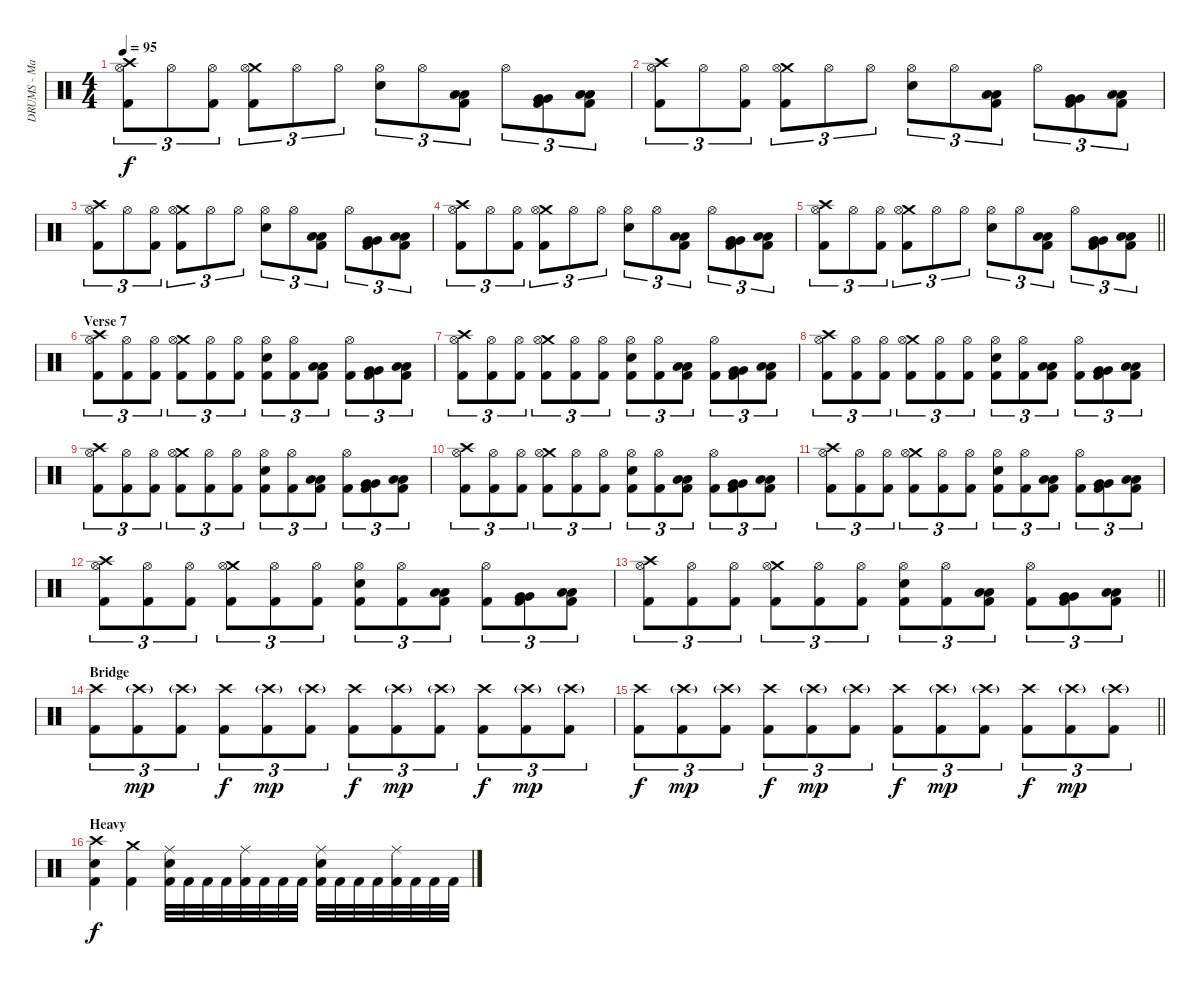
\track ("DRUMS - Mario Duplantier" "DRUMS - Ma") {instrument percussion}
\staff {score}
\articulation defaults
\ts (4 4)
\tempo 95
\clef neutral
\ks c
("Crash high (hit)" "Hi-Hat (open)" "Kick (hit) 2").8{tu (3 2) dy f} "Hi-Hat (open)".8{tu (3 2)} ("Hi-Hat (open)" "Kick (hit) 2").8{tu (3 2)} ("Crash medium (hit)" "Hi-Hat (open)" "Kick (hit) 2").8{tu (3 2)} "Hi-Hat (open)".8{tu (3 2)} "Hi-Hat (open)".8{tu (3 2)} ("Hi-Hat (open)" "Electric Snare (hit)").8{tu (3 2)} "Hi-Hat (open)".8{tu (3 2)} ("Low Floor Tom (hit)" "Low Floor Tom (hit)" "Kick (hit) 2").8{tu (3 2)} "Hi-Hat (open)".8{tu (3 2)} ("Very Low Tom (hit)" "Very Low Tom (hit)" "Kick (hit) 2").8{tu (3 2)} ("Low Floor Tom (hit)" "Low Floor Tom (hit)" "Kick (hit) 2").8{tu (3 2)} |
("Crash high (hit)" "Hi-Hat (open)" "Kick (hit) 2").8{tu (3 2)} "Hi-Hat (open)".8{tu (3 2)} ("Hi-Hat (open)" "Kick (hit) 2").8{tu (3 2)} ("Crash medium (hit)" "Hi-Hat (open)" "Kick (hit) 2").8{tu (3 2)} "Hi-Hat (open)".8{tu (3 2)} "Hi-Hat (open)".8{tu (3 2)} ("Hi-Hat (open)" "Electric Snare (hit)").8{tu (3 2)} "Hi-Hat (open)".8{tu (3 2)} ("Low Floor Tom (hit)" "Low Floor Tom (hit)" "Kick (hit) 2").8{tu (3 2)} "Hi-Hat (open)".8{tu (3 2)} ("Very Low Tom (hit)" "Very Low Tom (hit)" "Kick (hit) 2").8{tu (3 2)} ("Low Floor Tom (hit)" "Low Floor Tom (hit)" "Kick (hit) 2").8{tu (3 2)} |
("Crash high (hit)" "Hi-Hat (open)" "Kick (hit) 2").8{tu (3 2)} "Hi-Hat (open)".8{tu (3 2)} ("Hi-Hat (open)" "Kick (hit) 2").8{tu (3 2)} ("Crash medium (hit)" "Hi-Hat (open)" "Kick (hit) 2").8{tu (3 2)} "Hi-Hat (open)".8{tu (3 2)} "Hi-Hat (open)".8{tu (3 2)} ("Hi-Hat (open)" "Electric Snare (hit)").8{tu (3 2)} "Hi-Hat (open)".8{tu (3 2)} ("Low Floor Tom (hit)" "Low Floor Tom (hit)" "Kick (hit) 2").8{tu (3 2)} "Hi-Hat (open)".8{tu (3 2)} ("Very Low Tom (hit)" "Very Low Tom (hit)" "Kick (hit) 2").8{tu (3 2)} ("Low Floor Tom (hit)" "Low Floor Tom (hit)" "Kick (hit) 2").8{tu (3 2)} |
("Crash high (hit)" "Hi-Hat (open)" "Kick (hit) 2").8{tu (3 2)} "Hi-Hat (open)".8{tu (3 2)} ("Hi-Hat (open)" "Kick (hit) 2").8{tu (3 2)} ("Crash medium (hit)" "Hi-Hat (open)" "Kick (hit) 2").8{tu (3 2)} "Hi-Hat (open)".8{tu (3 2)} "Hi-Hat (open)".8{tu (3 2)} ("Hi-Hat (open)" "Electric Snare (hit)").8{tu (3 2)} "Hi-Hat (open)".8{tu (3 2)} ("Low Floor Tom (hit)" "Low Floor Tom (hit)" "Kick (hit) 2").8{tu (3 2)} "Hi-Hat (open)".8{tu (3 2)} ("Very Low Tom (hit)" "Very Low Tom (hit)" "Kick (hit) 2").8{tu (3 2)} ("Low Floor Tom (hit)" "Low Floor Tom (hit)" "Kick (hit) 2").8{tu (3 2)} |
\barLineRight lightlight
("Crash high (hit)" "Hi-Hat (open)" "Kick (hit) 2").8{tu (3 2)} "Hi-Hat (open)".8{tu (3 2)} ("Hi-Hat (open)" "Kick (hit) 2").8{tu (3 2)} ("Crash medium (hit)" "Hi-Hat (open)" "Kick (hit) 2").8{tu (3 2)} "Hi-Hat (open)".8{tu (3 2)} "Hi-Hat (open)".8{tu (3 2)} ("Hi-Hat (open)" "Electric Snare (hit)").8{tu (3 2)} "Hi-Hat (open)".8{tu (3 2)} ("Low Floor Tom (hit)" "Low Floor Tom (hit)" "Kick (hit) 2").8{tu (3 2)} "Hi-Hat (open)".8{tu (3 2)} ("Very Low Tom (hit)" "Very Low Tom (hit)" "Kick (hit) 2").8{tu (3 2)} ("Low Floor Tom (hit)" "Low Floor Tom (hit)" "Kick (hit) 2").8{tu (3 2)} |
\section ("" "Verse 7")
("Crash high (hit)" "Hi-Hat (open)" "Kick (hit) 2").8{tu (3 2)} ("Hi-Hat (open)" "Kick (hit) 2").8{tu (3 2)} ("Hi-Hat (open)" "Kick (hit) 2").8{tu (3 2)} ("Crash medium (hit)" "Hi-Hat (open)" "Kick (hit) 2").8{tu (3 2)} ("Hi-Hat (open)" "Kick (hit) 2").8{tu (3 2)} ("Hi-Hat (open)" "Kick (hit) 2").8{tu (3 2)} ("Hi-Hat (open)" "Electric Snare (hit)" "Kick (hit) 2").8{tu (3 2)} ("Hi-Hat (open)" "Kick (hit) 2").8{tu (3 2)} ("Low Floor Tom (hit)" "Low Floor Tom (hit)" "Kick (hit) 2").8{tu (3 2)} ("Hi-Hat (open)" "Kick (hit) 2").8{tu (3 2)} ("Very Low Tom (hit)" "Very Low Tom (hit)" "Kick (hit) 2").8{tu (3 2)} ("Low Floor Tom (hit)" "Low Floor Tom (hit)" "Kick (hit) 2").8{tu (3 2)} |
("Crash high (hit)" "Hi-Hat (open)" "Kick (hit) 2").8{tu (3 2)} ("Hi-Hat (open)" "Kick (hit) 2").8{tu (3 2)} ("Hi-Hat (open)" "Kick (hit) 2").8{tu (3 2)} ("Crash medium (hit)" "Hi-Hat (open)" "Kick (hit) 2").8{tu (3 2)} ("Hi-Hat (open)" "Kick (hit) 2").8{tu (3 2)} ("Hi-Hat (open)" "Kick (hit) 2").8{tu (3 2)} ("Hi-Hat (open)" "Electric Snare (hit)" "Kick (hit) 2").8{tu (3 2)} ("Hi-Hat (open)" "Kick (hit) 2").8{tu (3 2)} ("Low Floor Tom (hit)" "Low Floor Tom (hit)" "Kick (hit) 2").8{tu (3 2)} ("Hi-Hat (open)" "Kick (hit) 2").8{tu (3 2)} ("Very Low Tom (hit)" "Very Low Tom (hit)" "Kick (hit) 2").8{tu (3 2)} ("Low Floor Tom (hit)" "Low Floor Tom (hit)" "Kick (hit) 2").8{tu (3 2)} |
("Crash high (hit)" "Hi-Hat (open)" "Kick (hit) 2").8{tu (3 2)} ("Hi-Hat (open)" "Kick (hit) 2").8{tu (3 2)} ("Hi-Hat (open)" "Kick (hit) 2").8{tu (3 2)} ("Crash medium (hit)" "Hi-Hat (open)" "Kick (hit) 2").8{tu (3 2)} ("Hi-Hat (open)" "Kick (hit) 2").8{tu (3 2)} ("Hi-Hat (open)" "Kick (hit) 2").8{tu (3 2)} ("Hi-Hat (open)" "Electric Snare (hit)" "Kick (hit) 2").8{tu (3 2)} ("Hi-Hat (open)" "Kick (hit) 2").8{tu (3 2)} ("Low Floor Tom (hit)" "Low Floor Tom (hit)" "Kick (hit) 2").8{tu (3 2)} ("Hi-Hat (open)" "Kick (hit) 2").8{tu (3 2)} ("Very Low Tom (hit)" "Very Low Tom (hit)" "Kick (hit) 2").8{tu (3 2)} ("Low Floor Tom (hit)" "Low Floor Tom (hit)" "Kick (hit) 2").8{tu (3 2)} |
("Crash high (hit)" "Hi-Hat (open)" "Kick (hit) 2").8{tu (3 2)} ("Hi-Hat (open)" "Kick (hit) 2").8{tu (3 2)} ("Hi-Hat (open)" "Kick (hit) 2").8{tu (3 2)} ("Crash medium (hit)" "Hi-Hat (open)" "Kick (hit) 2").8{tu (3 2)} ("Hi-Hat (open)" "Kick (hit) 2").8{tu (3 2)} ("Hi-Hat (open)" "Kick (hit) 2").8{tu (3 2)} ("Hi-Hat (open)" "Electric Snare (hit)" "Kick (hit) 2").8{tu (3 2)} ("Hi-Hat (open)" "Kick (hit) 2").8{tu (3 2)} ("Low Floor Tom (hit)" "Low Floor Tom (hit)" "Kick (hit) 2").8{tu (3 2)} ("Hi-Hat (open)" "Kick (hit) 2").8{tu (3 2)} ("Very Low Tom (hit)" "Very Low Tom (hit)" "Kick (hit) 2").8{tu (3 2)} ("Low Floor Tom (hit)" "Low Floor Tom (hit)" "Kick (hit) 2").8{tu (3 2)} |
("Crash high (hit)" "Hi-Hat (open)" "Kick (hit) 2").8{tu (3 2)} ("Hi-Hat (open)" "Kick (hit) 2").8{tu (3 2)} ("Hi-Hat (open)" "Kick (hit) 2").8{tu (3 2)} ("Crash medium (hit)" "Hi-Hat (open)" "Kick (hit) 2").8{tu (3 2)} ("Hi-Hat (open)" "Kick (hit) 2").8{tu (3 2)} ("Hi-Hat (open)" "Kick (hit) 2").8{tu (3 2)} ("Hi-Hat (open)" "Electric Snare (hit)" "Kick (hit) 2").8{tu (3 2)} ("Hi-Hat (open)" "Kick (hit) 2").8{tu (3 2)} ("Low Floor Tom (hit)" "Low Floor Tom (hit)" "Kick (hit) 2").8{tu (3 2)} ("Hi-Hat (open)" "Kick (hit) 2").8{tu (3 2)} ("Very Low Tom (hit)" "Very Low Tom (hit)" "Kick (hit) 2").8{tu (3 2)} ("Low Floor Tom (hit)" "Low Floor Tom (hit)" "Kick (hit) 2").8{tu (3 2)} |
("Crash high (hit)" "Hi-Hat (open)" "Kick (hit) 2").8{tu (3 2)} ("Hi-Hat (open)" "Kick (hit) 2").8{tu (3 2)} ("Hi-Hat (open)" "Kick (hit) 2").8{tu (3 2)} ("Crash medium (hit)" "Hi-Hat (open)" "Kick (hit) 2").8{tu (3 2)} ("Hi-Hat (open)" "Kick (hit) 2").8{tu (3 2)} ("Hi-Hat (open)" "Kick (hit) 2").8{tu (3 2)} ("Hi-Hat (open)" "Electric Snare (hit)" "Kick (hit) 2").8{tu (3 2)} ("Hi-Hat (open)" "Kick (hit) 2").8{tu (3 2)} ("Low Floor Tom (hit)" "Low Floor Tom (hit)" "Kick (hit) 2").8{tu (3 2)} ("Hi-Hat (open)" "Kick (hit) 2").8{tu (3 2)} ("Very Low Tom (hit)" "Very Low Tom (hit)" "Kick (hit) 2").8{tu (3 2)} ("Low Floor Tom (hit)" "Low Floor Tom (hit)" "Kick (hit) 2").8{tu (3 2)} |
("Crash high (hit)" "Hi-Hat (open)" "Kick (hit) 2").8{tu (3 2)} ("Hi-Hat (open)" "Kick (hit) 2").8{tu (3 2)} ("Hi-Hat (open)" "Kick (hit) 2").8{tu (3 2)} ("Crash medium (hit)" "Hi-Hat (open)" "Kick (hit) 2").8{tu (3 2)} ("Hi-Hat (open)" "Kick (hit) 2").8{tu (3 2)} ("Hi-Hat (open)" "Kick (hit) 2").8{tu (3 2)} ("Hi-Hat (open)" "Electric Snare (hit)" "Kick (hit) 2").8{tu (3 2)} ("Hi-Hat (open)" "Kick (hit) 2").8{tu (3 2)} ("Low Floor Tom (hit)" "Low Floor Tom (hit)" "Kick (hit) 2").8{tu (3 2)} ("Hi-Hat (open)" "Kick (hit) 2").8{tu (3 2)} ("Very Low Tom (hit)" "Very Low Tom (hit)" "Kick (hit) 2").8{tu (3 2)} ("Low Floor Tom (hit)" "Low Floor Tom (hit)" "Kick (hit) 2").8{tu (3 2)} |
\barLineRight lightlight
("Crash high (hit)" "Hi-Hat (open)" "Kick (hit) 2").8{tu (3 2)} ("Hi-Hat (open)" "Kick (hit) 2").8{tu (3 2)} ("Hi-Hat (open)" "Kick (hit) 2").8{tu (3 2)} ("Crash medium (hit)" "Hi-Hat (open)" "Kick (hit) 2").8{tu (3 2)} ("Hi-Hat (open)" "Kick (hit) 2").8{tu (3 2)} ("Hi-Hat (open)" "Kick (hit) 2").8{tu (3 2)} ("Hi-Hat (open)" "Electric Snare (hit)" "Kick (hit) 2").8{tu (3 2)} ("Hi-Hat (open)" "Kick (hit) 2").8{tu (3 2)} ("Low Floor Tom (hit)" "Low Floor Tom (hit)" "Kick (hit) 2").8{tu (3 2)} ("Hi-Hat (open)" "Kick (hit) 2").8{tu (3 2)} ("Very Low Tom (hit)" "Very Low Tom (hit)" "Kick (hit) 2").8{tu (3 2)} ("Low Floor Tom (hit)" "Low Floor Tom (hit)" "Kick (hit) 2").8{tu (3 2)} |
\section ("" "Bridge")
("Crash high (hit)" "Kick (hit) 2").8{tu (3 2)} ("Crash high (hit)"{g} "Kick (hit) 2").8{tu (3 2) dy mp} ("Crash high (hit)"{g} "Kick (hit) 2").8{tu (3 2)} ("Crash high (hit)" "Kick (hit) 2").8{tu (3 2) dy f} ("Crash high (hit)"{g} "Kick (hit) 2").8{tu (3 2) dy mp} ("Crash high (hit)"{g} "Kick (hit) 2").8{tu (3 2)} ("Crash high (hit)" "Kick (hit) 2").8{tu (3 2) dy f} ("Crash high (hit)"{g} "Kick (hit) 2").8{tu (3 2) dy mp} ("Crash high (hit)"{g} "Kick (hit) 2").8{tu (3 2)} ("Crash high (hit)" "Kick (hit) 2").8{tu (3 2) dy f} ("Crash high (hit)"{g} "Kick (hit) 2").8{tu (3 2) dy mp} ("Crash high (hit)"{g} "Kick (hit) 2").8{tu (3 2)} |
\barLineRight lightlight
("Crash high (hit)" "Kick (hit) 2").8{tu (3 2) dy f} ("Crash high (hit)"{g} "Kick (hit) 2").8{tu (3 2) dy mp} ("Crash high (hit)"{g} "Kick (hit) 2").8{tu (3 2)} ("Crash high (hit)" "Kick (hit) 2").8{tu (3 2) dy f} ("Crash high (hit)"{g} "Kick (hit) 2").8{tu (3 2) dy mp} ("Crash high (hit)"{g} "Kick (hit) 2").8{tu (3 2)} ("Crash high (hit)" "Kick (hit) 2").8{tu (3 2) dy f} ("Crash high (hit)"{g} "Kick (hit) 2").8{tu (3 2) dy mp} ("Crash high (hit)"{g} "Kick (hit) 2").8{tu (3 2)} ("Crash high (hit)" "Kick (hit) 2").8{tu (3 2) dy f} ("Crash high (hit)"{g} "Kick (hit) 2").8{tu (3 2) dy mp} ("Crash high (hit)"{g} "Kick (hit) 2").8{tu (3 2)} |
\section ("" "Heavy")
("Crash high (hit)" "Electric Snare (hit)" "Kick (hit) 2").4{dy f} ("Crash medium (hit)" "Kick (hit) 2").4 ("Ride (middle)" "Electric Snare (hit)" "Kick (hit) 2").32 "Kick (hit) 2".32 "Kick (hit) 2".32 "Kick (hit) 2".32 ("Ride (middle)" "Kick (hit) 2").32 "Kick (hit) 2".32 "Kick (hit) 2".32 "Kick (hit) 2".32 ("Ride (middle)" "Electric Snare (hit)" "Kick (hit) 2").32 "Kick (hit) 2".32 "Kick (hit) 2".32 "Kick (hit) 2".32 ("Ride (middle)" "Kick (hit) 2").32 "Kick (hit) 2".32 "Kick (hit) 2".32 "Kick (hit) 2".32
